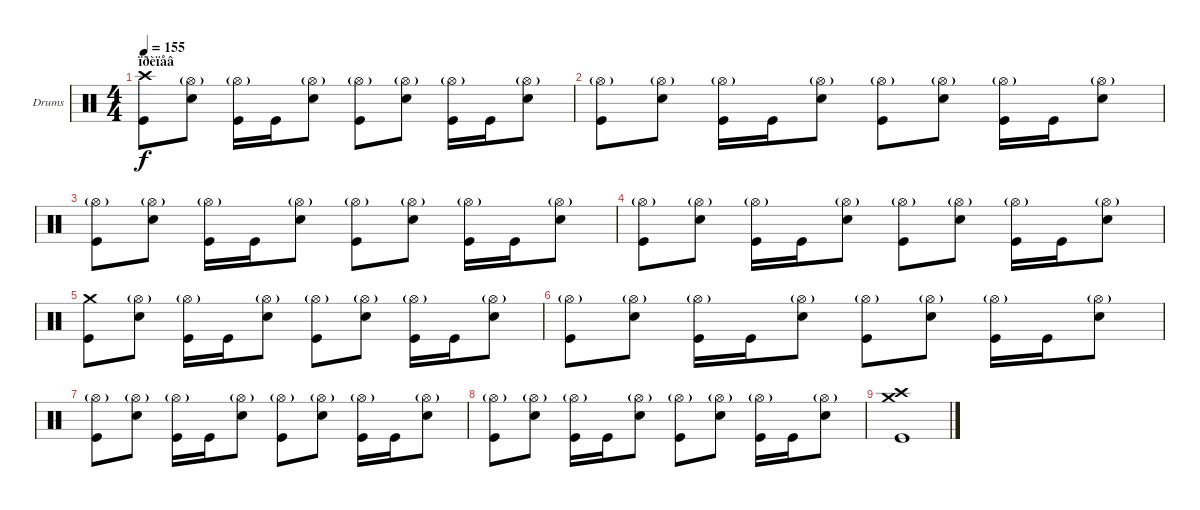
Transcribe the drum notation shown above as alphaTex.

\bracketExtendMode groupsimilarinstruments
\firstSystemTrackNameOrientation horizontal
\otherSystemsTrackNameOrientation horizontal
\track ("Drumkit" "Drums") {instrument percussion}
\staff {score}
\articulation defaults
\ts (4 4)
\section ("" "ïðèïåâ")
\tempo 155
\clef neutral
\ks c
("Crash high (hit)" "Kick (hit)").8{dy f} ("Hi-Hat (open)"{g} "Snare (hit) 2").8 ("Hi-Hat (open)"{g} "Kick (hit)").16 "Kick (hit)".16 ("Hi-Hat (open)"{g} "Snare (hit) 2").8 ("Hi-Hat (open)"{g} "Kick (hit)").8 ("Hi-Hat (open)"{g} "Snare (hit) 2").8 ("Hi-Hat (open)"{g} "Kick (hit)").16 "Kick (hit)".16 ("Hi-Hat (open)"{g} "Snare (hit) 2").8 |
("Hi-Hat (open)"{g} "Kick (hit)").8 ("Hi-Hat (open)"{g} "Snare (hit) 2").8 ("Hi-Hat (open)"{g} "Kick (hit)").16 "Kick (hit)".16 ("Hi-Hat (open)"{g} "Snare (hit) 2").8 ("Hi-Hat (open)"{g} "Kick (hit)").8 ("Hi-Hat (open)"{g} "Snare (hit) 2").8 ("Hi-Hat (open)"{g} "Kick (hit)").16 "Kick (hit)".16 ("Hi-Hat (open)"{g} "Snare (hit) 2").8 |
("Hi-Hat (open)"{g} "Kick (hit)").8 ("Hi-Hat (open)"{g} "Snare (hit) 2").8 ("Hi-Hat (open)"{g} "Kick (hit)").16 "Kick (hit)".16 ("Hi-Hat (open)"{g} "Snare (hit) 2").8 ("Hi-Hat (open)"{g} "Kick (hit)").8 ("Hi-Hat (open)"{g} "Snare (hit) 2").8 ("Hi-Hat (open)"{g} "Kick (hit)").16 "Kick (hit)".16 ("Hi-Hat (open)"{g} "Snare (hit) 2").8 |
("Hi-Hat (open)"{g} "Kick (hit)").8 ("Hi-Hat (open)"{g} "Snare (hit) 2").8 ("Hi-Hat (open)"{g} "Kick (hit)").16 "Kick (hit)".16 ("Hi-Hat (open)"{g} "Snare (hit) 2").8 ("Hi-Hat (open)"{g} "Kick (hit)").8 ("Hi-Hat (open)"{g} "Snare (hit) 2").8 ("Hi-Hat (open)"{g} "Kick (hit)").16 "Kick (hit)".16 ("Hi-Hat (open)"{g} "Snare (hit) 2").8 |
("Crash medium (hit)" "Kick (hit)").8 ("Hi-Hat (open)"{g} "Snare (hit) 2").8 ("Hi-Hat (open)"{g} "Kick (hit)").16 "Kick (hit)".16 ("Hi-Hat (open)"{g} "Snare (hit) 2").8 ("Hi-Hat (open)"{g} "Kick (hit)").8 ("Hi-Hat (open)"{g} "Snare (hit) 2").8 ("Hi-Hat (open)"{g} "Kick (hit)").16 "Kick (hit)".16 ("Hi-Hat (open)"{g} "Snare (hit) 2").8 |
("Hi-Hat (open)"{g} "Kick (hit)").8 ("Hi-Hat (open)"{g} "Snare (hit) 2").8 ("Hi-Hat (open)"{g} "Kick (hit)").16 "Kick (hit)".16 ("Hi-Hat (open)"{g} "Snare (hit) 2").8 ("Hi-Hat (open)"{g} "Kick (hit)").8 ("Hi-Hat (open)"{g} "Snare (hit) 2").8 ("Hi-Hat (open)"{g} "Kick (hit)").16 "Kick (hit)".16 ("Hi-Hat (open)"{g} "Snare (hit) 2").8 |
("Hi-Hat (open)"{g} "Kick (hit)").8 ("Hi-Hat (open)"{g} "Snare (hit) 2").8 ("Hi-Hat (open)"{g} "Kick (hit)").16 "Kick (hit)".16 ("Hi-Hat (open)"{g} "Snare (hit) 2").8 ("Hi-Hat (open)"{g} "Kick (hit)").8 ("Hi-Hat (open)"{g} "Snare (hit) 2").8 ("Hi-Hat (open)"{g} "Kick (hit)").16 "Kick (hit)".16 ("Hi-Hat (open)"{g} "Snare (hit) 2").8 |
("Hi-Hat (open)"{g} "Kick (hit)").8 ("Hi-Hat (open)"{g} "Snare (hit) 2").8 ("Hi-Hat (open)"{g} "Kick (hit)").16 "Kick (hit)".16 ("Hi-Hat (open)"{g} "Snare (hit) 2").8 ("Hi-Hat (open)"{g} "Kick (hit)").8 ("Hi-Hat (open)"{g} "Snare (hit) 2").8 ("Hi-Hat (open)"{g} "Kick (hit)").16 "Kick (hit)".16 ("Hi-Hat (open)"{g} "Snare (hit) 2").8 |
("Crash high (hit)" "Crash medium (hit)" "Kick (hit)").1
